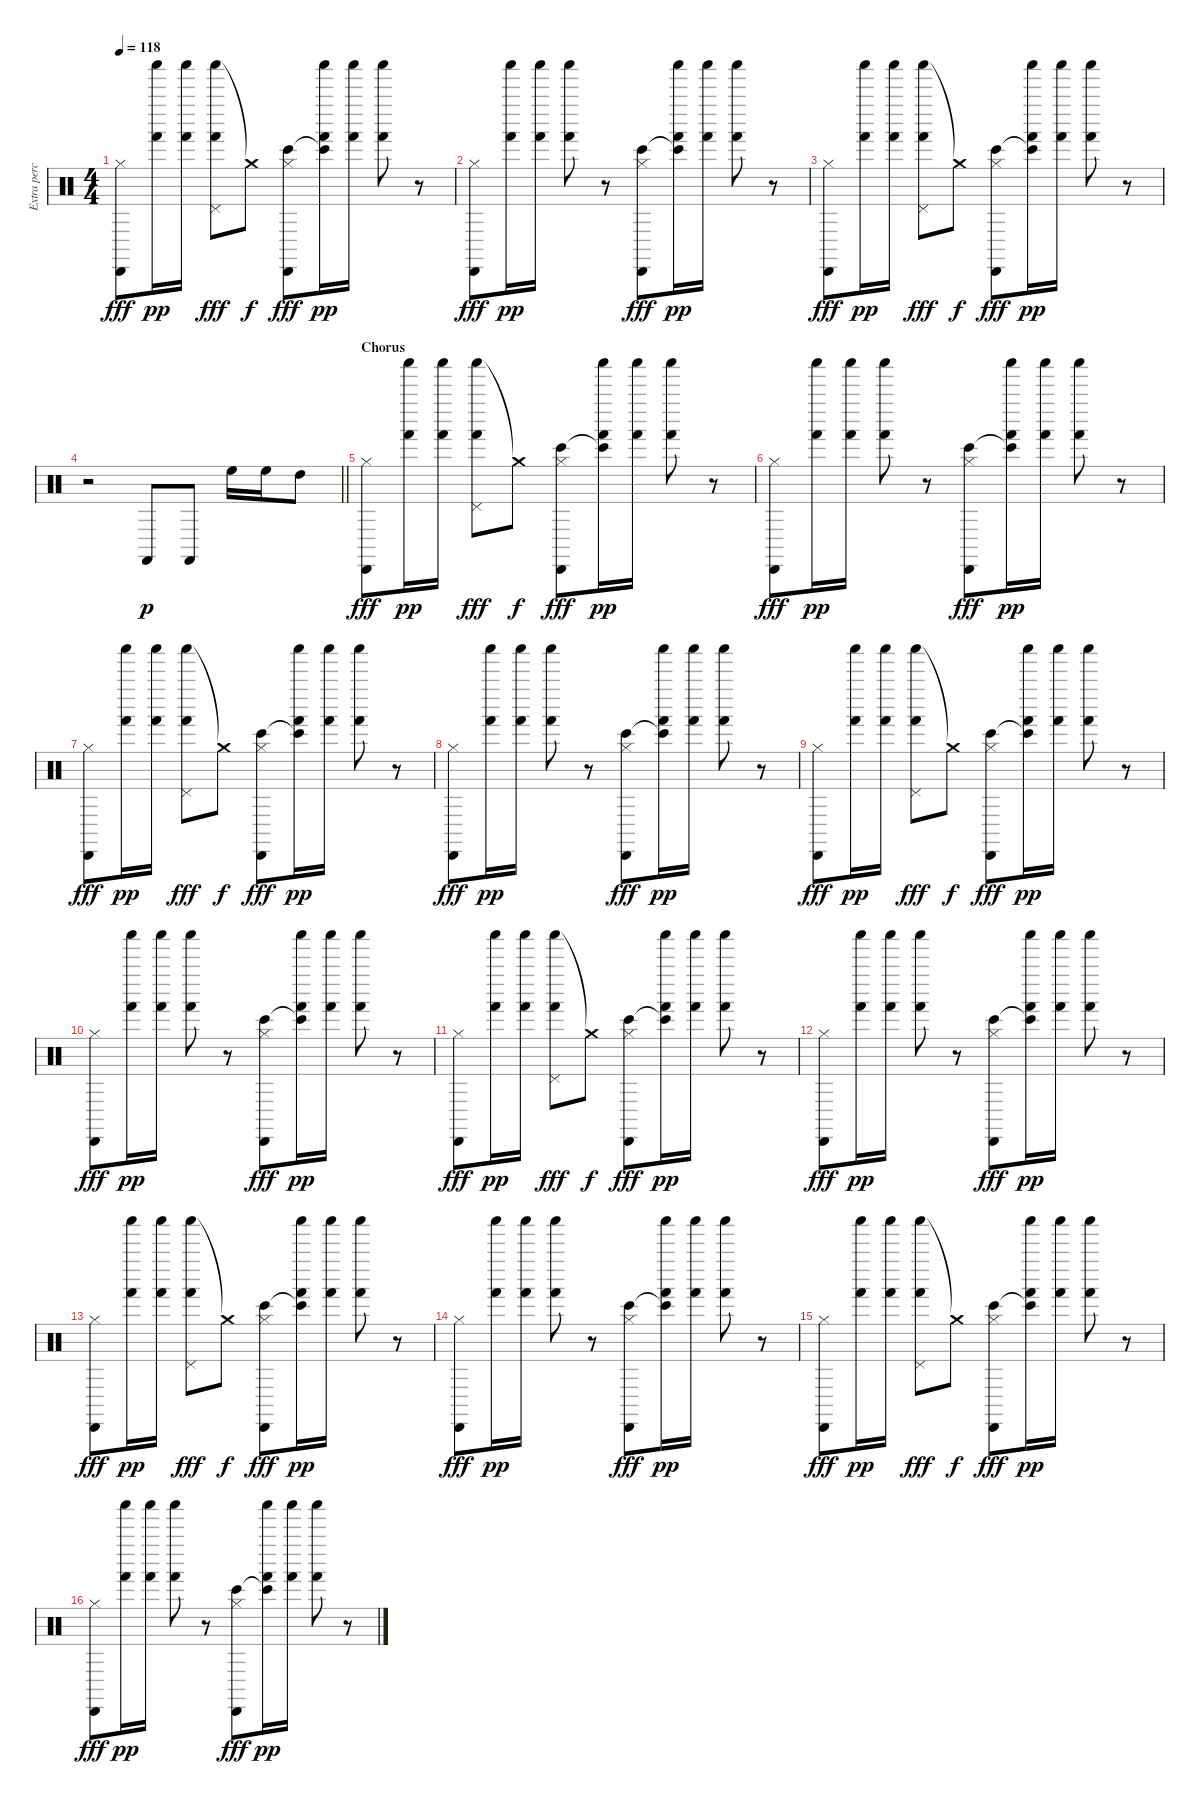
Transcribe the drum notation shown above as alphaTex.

\track ("Extra percussion" "Extra perc") {instrument percussion}
\staff {score}
\articulation defaults
\ts (4 4)
\tempo 118
\clef neutral
\ks c
("Cabasa (hit)" "Hi-Hat (closed)").8{dy fff} ("Shaker (hit)" "Hand (hit)").16{dy pp} ("Shaker (hit)" "Hand (hit)").16 ("Shaker (hit)" "Hand (hit)" "Pedal Hi-Hat (hit)").8{dy fff} "Crash medium (hit)"{t}.8{dy f} ("Cabasa (hit)" "Hi-Hat (closed)" "Bongo High (hit)").8{dy fff} ("Shaker (hit)" "Hand (hit)" "Bongo High (hit)"{t}).16{dy pp} ("Shaker (hit)" "Hand (hit)").16 ("Shaker (hit)" "Hand (hit)").8 r.8 |
("Cabasa (hit)" "Hi-Hat (closed)").8{dy fff} ("Shaker (hit)" "Hand (hit)").16{dy pp} ("Shaker (hit)" "Hand (hit)").16 ("Shaker (hit)" "Hand (hit)").8 r.8 ("Cabasa (hit)" "Hi-Hat (closed)" "Bongo High (hit)").8{dy fff} ("Shaker (hit)" "Hand (hit)" "Bongo High (hit)"{t}).16{dy pp} ("Shaker (hit)" "Hand (hit)").16 ("Shaker (hit)" "Hand (hit)").8 r.8 |
("Cabasa (hit)" "Hi-Hat (closed)").8{dy fff} ("Shaker (hit)" "Hand (hit)").16{dy pp} ("Shaker (hit)" "Hand (hit)").16 ("Shaker (hit)" "Hand (hit)" "Pedal Hi-Hat (hit)").8{dy fff} "Crash medium (hit)"{t}.8{dy f} ("Cabasa (hit)" "Hi-Hat (closed)" "Bongo High (hit)").8{dy fff} ("Shaker (hit)" "Hand (hit)" "Bongo High (hit)"{t}).16{dy pp} ("Shaker (hit)" "Hand (hit)").16 ("Shaker (hit)" "Hand (hit)").8 r.8 |
\barLineRight lightlight
r.2 "Castanets (hit)".8{dy p} "Castanets (hit)".8 "High Floor Tom (hit)".16 "High Floor Tom (hit)".16 "High Tom (hit)".8 |
\section ("" "Chorus")
("Cabasa (hit)" "Hi-Hat (closed)").8{dy fff} ("Shaker (hit)" "Hand (hit)").16{dy pp} ("Shaker (hit)" "Hand (hit)").16 ("Shaker (hit)" "Hand (hit)" "Pedal Hi-Hat (hit)").8{dy fff} "Crash medium (hit)"{t}.8{dy f} ("Cabasa (hit)" "Hi-Hat (closed)" "Bongo High (hit)").8{dy fff} ("Shaker (hit)" "Hand (hit)" "Bongo High (hit)"{t}).16{dy pp} ("Shaker (hit)" "Hand (hit)").16 ("Shaker (hit)" "Hand (hit)").8 r.8 |
("Cabasa (hit)" "Hi-Hat (closed)").8{dy fff} ("Shaker (hit)" "Hand (hit)").16{dy pp} ("Shaker (hit)" "Hand (hit)").16 ("Shaker (hit)" "Hand (hit)").8 r.8 ("Cabasa (hit)" "Hi-Hat (closed)" "Bongo High (hit)").8{dy fff} ("Shaker (hit)" "Hand (hit)" "Bongo High (hit)"{t}).16{dy pp} ("Shaker (hit)" "Hand (hit)").16 ("Shaker (hit)" "Hand (hit)").8 r.8 |
("Cabasa (hit)" "Hi-Hat (closed)").8{dy fff} ("Shaker (hit)" "Hand (hit)").16{dy pp} ("Shaker (hit)" "Hand (hit)").16 ("Shaker (hit)" "Hand (hit)" "Pedal Hi-Hat (hit)").8{dy fff} "Crash medium (hit)"{t}.8{dy f} ("Cabasa (hit)" "Hi-Hat (closed)" "Bongo High (hit)").8{dy fff} ("Shaker (hit)" "Hand (hit)" "Bongo High (hit)"{t}).16{dy pp} ("Shaker (hit)" "Hand (hit)").16 ("Shaker (hit)" "Hand (hit)").8 r.8 |
("Cabasa (hit)" "Hi-Hat (closed)").8{dy fff} ("Shaker (hit)" "Hand (hit)").16{dy pp} ("Shaker (hit)" "Hand (hit)").16 ("Shaker (hit)" "Hand (hit)").8 r.8 ("Cabasa (hit)" "Hi-Hat (closed)" "Bongo High (hit)").8{dy fff} ("Shaker (hit)" "Hand (hit)" "Bongo High (hit)"{t}).16{dy pp} ("Shaker (hit)" "Hand (hit)").16 ("Shaker (hit)" "Hand (hit)").8 r.8 |
("Cabasa (hit)" "Hi-Hat (closed)").8{dy fff} ("Shaker (hit)" "Hand (hit)").16{dy pp} ("Shaker (hit)" "Hand (hit)").16 ("Shaker (hit)" "Hand (hit)" "Pedal Hi-Hat (hit)").8{dy fff} "Crash medium (hit)"{t}.8{dy f} ("Cabasa (hit)" "Hi-Hat (closed)" "Bongo High (hit)").8{dy fff} ("Shaker (hit)" "Hand (hit)" "Bongo High (hit)"{t}).16{dy pp} ("Shaker (hit)" "Hand (hit)").16 ("Shaker (hit)" "Hand (hit)").8 r.8 |
("Cabasa (hit)" "Hi-Hat (closed)").8{dy fff} ("Shaker (hit)" "Hand (hit)").16{dy pp} ("Shaker (hit)" "Hand (hit)").16 ("Shaker (hit)" "Hand (hit)").8 r.8 ("Cabasa (hit)" "Hi-Hat (closed)" "Bongo High (hit)").8{dy fff} ("Shaker (hit)" "Hand (hit)" "Bongo High (hit)"{t}).16{dy pp} ("Shaker (hit)" "Hand (hit)").16 ("Shaker (hit)" "Hand (hit)").8 r.8 |
("Cabasa (hit)" "Hi-Hat (closed)").8{dy fff} ("Shaker (hit)" "Hand (hit)").16{dy pp} ("Shaker (hit)" "Hand (hit)").16 ("Shaker (hit)" "Hand (hit)" "Pedal Hi-Hat (hit)").8{dy fff} "Crash medium (hit)"{t}.8{dy f} ("Cabasa (hit)" "Hi-Hat (closed)" "Bongo High (hit)").8{dy fff} ("Shaker (hit)" "Hand (hit)" "Bongo High (hit)"{t}).16{dy pp} ("Shaker (hit)" "Hand (hit)").16 ("Shaker (hit)" "Hand (hit)").8 r.8 |
("Cabasa (hit)" "Hi-Hat (closed)").8{dy fff} ("Shaker (hit)" "Hand (hit)").16{dy pp} ("Shaker (hit)" "Hand (hit)").16 ("Shaker (hit)" "Hand (hit)").8 r.8 ("Cabasa (hit)" "Hi-Hat (closed)" "Bongo High (hit)").8{dy fff} ("Shaker (hit)" "Hand (hit)" "Bongo High (hit)"{t}).16{dy pp} ("Shaker (hit)" "Hand (hit)").16 ("Shaker (hit)" "Hand (hit)").8 r.8 |
("Cabasa (hit)" "Hi-Hat (closed)").8{dy fff} ("Shaker (hit)" "Hand (hit)").16{dy pp} ("Shaker (hit)" "Hand (hit)").16 ("Shaker (hit)" "Hand (hit)" "Pedal Hi-Hat (hit)").8{dy fff} "Crash medium (hit)"{t}.8{dy f} ("Cabasa (hit)" "Hi-Hat (closed)" "Bongo High (hit)").8{dy fff} ("Shaker (hit)" "Hand (hit)" "Bongo High (hit)"{t}).16{dy pp} ("Shaker (hit)" "Hand (hit)").16 ("Shaker (hit)" "Hand (hit)").8 r.8 |
("Cabasa (hit)" "Hi-Hat (closed)").8{dy fff} ("Shaker (hit)" "Hand (hit)").16{dy pp} ("Shaker (hit)" "Hand (hit)").16 ("Shaker (hit)" "Hand (hit)").8 r.8 ("Cabasa (hit)" "Hi-Hat (closed)" "Bongo High (hit)").8{dy fff} ("Shaker (hit)" "Hand (hit)" "Bongo High (hit)"{t}).16{dy pp} ("Shaker (hit)" "Hand (hit)").16 ("Shaker (hit)" "Hand (hit)").8 r.8 |
("Cabasa (hit)" "Hi-Hat (closed)").8{dy fff} ("Shaker (hit)" "Hand (hit)").16{dy pp} ("Shaker (hit)" "Hand (hit)").16 ("Shaker (hit)" "Hand (hit)" "Pedal Hi-Hat (hit)").8{dy fff} "Crash medium (hit)"{t}.8{dy f} ("Cabasa (hit)" "Hi-Hat (closed)" "Bongo High (hit)").8{dy fff} ("Shaker (hit)" "Hand (hit)" "Bongo High (hit)"{t}).16{dy pp} ("Shaker (hit)" "Hand (hit)").16 ("Shaker (hit)" "Hand (hit)").8 r.8 |
("Cabasa (hit)" "Hi-Hat (closed)").8{dy fff} ("Shaker (hit)" "Hand (hit)").16{dy pp} ("Shaker (hit)" "Hand (hit)").16 ("Shaker (hit)" "Hand (hit)").8 r.8 ("Cabasa (hit)" "Hi-Hat (closed)" "Bongo High (hit)").8{dy fff} ("Shaker (hit)" "Hand (hit)" "Bongo High (hit)"{t}).16{dy pp} ("Shaker (hit)" "Hand (hit)").16 ("Shaker (hit)" "Hand (hit)").8 r.8
